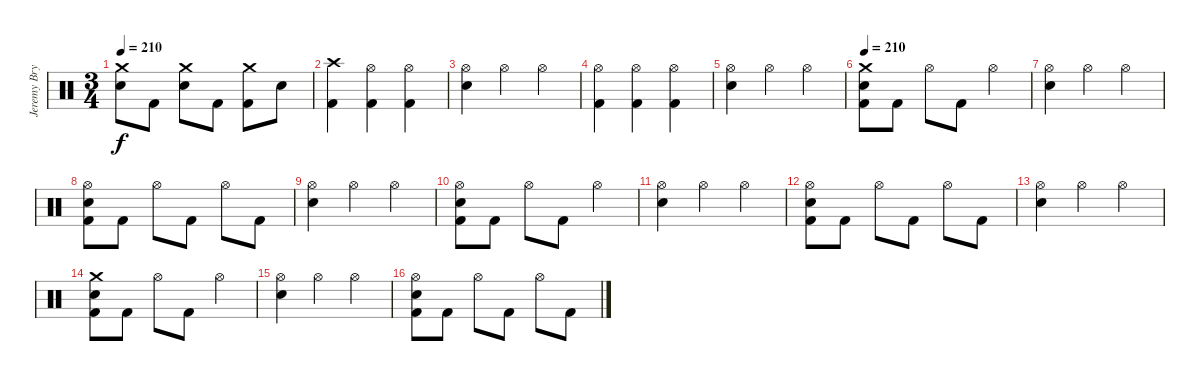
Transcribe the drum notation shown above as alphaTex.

\track ("Jeremy Bryan - Drums" "Jeremy Bry") {instrument percussion}
\staff {score}
\articulation defaults
\ts (3 4)
\tempo 210
\clef neutral
\ks c
("Crash medium (hit)" "Electric Snare (hit)").8{dy f} "Kick (hit) 2".8 ("Crash medium (hit)" "Electric Snare (hit)").8 "Kick (hit) 2".8 ("Crash medium (hit)" "Kick (hit) 2").8 "Electric Snare (hit)".8 |
("Crash high (hit)" "Kick (hit) 2").4 ("Hi-Hat (open)" "Kick (hit) 2").4 ("Hi-Hat (open)" "Kick (hit) 2").4 |
("Hi-Hat (open)" "Electric Snare (hit)").4 "Hi-Hat (open)".4 "Hi-Hat (open)".4 |
("Hi-Hat (open)" "Kick (hit) 2").4 ("Hi-Hat (open)" "Kick (hit) 2").4 ("Hi-Hat (open)" "Kick (hit) 2").4 |
("Hi-Hat (open)" "Electric Snare (hit)").4 "Hi-Hat (open)".4 "Hi-Hat (open)".4 |
\tempo 210
("Crash medium (hit)" "Electric Snare (hit)" "Kick (hit) 2").8 "Kick (hit) 2".8 "Hi-Hat (open)".8 "Kick (hit) 2".8 "Hi-Hat (open)".4 |
("Hi-Hat (open)" "Electric Snare (hit)").4 "Hi-Hat (open)".4 "Hi-Hat (open)".4 |
("Hi-Hat (open)" "Electric Snare (hit)" "Kick (hit) 2").8 "Kick (hit) 2".8 "Hi-Hat (open)".8 "Kick (hit) 2".8 "Hi-Hat (open)".8 "Kick (hit) 2".8 |
("Hi-Hat (open)" "Electric Snare (hit)").4 "Hi-Hat (open)".4 "Hi-Hat (open)".4 |
("Hi-Hat (open)" "Electric Snare (hit)" "Kick (hit) 2").8 "Kick (hit) 2".8 "Hi-Hat (open)".8 "Kick (hit) 2".8 "Hi-Hat (open)".4 |
("Hi-Hat (open)" "Electric Snare (hit)").4 "Hi-Hat (open)".4 "Hi-Hat (open)".4 |
("Hi-Hat (open)" "Electric Snare (hit)" "Kick (hit) 2").8 "Kick (hit) 2".8 "Hi-Hat (open)".8 "Kick (hit) 2".8 "Hi-Hat (open)".8 "Kick (hit) 2".8 |
("Hi-Hat (open)" "Electric Snare (hit)").4 "Hi-Hat (open)".4 "Hi-Hat (open)".4 |
("Crash medium (hit)" "Electric Snare (hit)" "Kick (hit) 2").8 "Kick (hit) 2".8 "Hi-Hat (open)".8 "Kick (hit) 2".8 "Hi-Hat (open)".4 |
("Hi-Hat (open)" "Electric Snare (hit)").4 "Hi-Hat (open)".4 "Hi-Hat (open)".4 |
("Hi-Hat (open)" "Electric Snare (hit)" "Kick (hit) 2").8 "Kick (hit) 2".8 "Hi-Hat (open)".8 "Kick (hit) 2".8 "Hi-Hat (open)".8 "Kick (hit) 2".8
